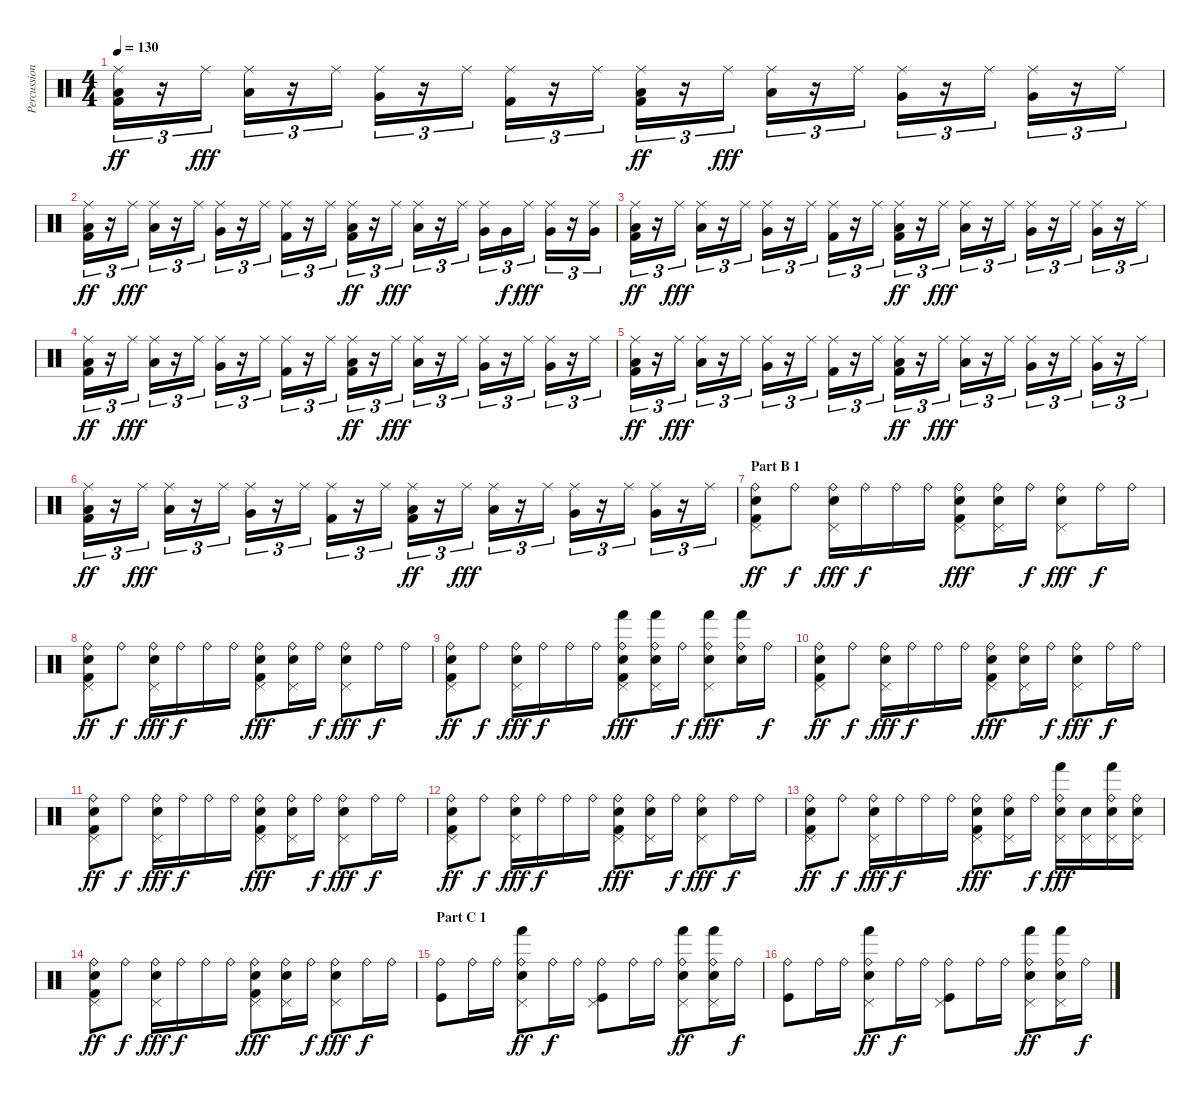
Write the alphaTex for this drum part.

\track ("Percussion" "Percussion") {instrument percussion}
\staff {score}
\articulation defaults
\ts (4 4)
\tempo 130
\clef neutral
\ks c
("Ride (middle)" "Low Tom (hit)" "Kick (hit) 2").16{tu (3 2) dy ff} r.16{tu (3 2)} "Ride (middle)".16{tu (3 2) dy fff} ("Ride (middle)" "Low Floor Tom (hit)").16{tu (3 2)} r.16{tu (3 2)} "Ride (middle)".16{tu (3 2)} ("Ride (middle)" "Very Low Tom (hit)").16{tu (3 2)} r.16{tu (3 2)} "Ride (middle)".16{tu (3 2)} ("Ride (middle)" "Kick (hit) 2").16{tu (3 2)} r.16{tu (3 2)} "Ride (middle)".16{tu (3 2)} ("Ride (middle)" "Low Tom (hit)" "Kick (hit) 2").16{tu (3 2) dy ff} r.16{tu (3 2)} "Ride (middle)".16{tu (3 2) dy fff} ("Ride (middle)" "Low Floor Tom (hit)").16{tu (3 2)} r.16{tu (3 2)} "Ride (middle)".16{tu (3 2)} ("Ride (middle)" "Very Low Tom (hit)").16{tu (3 2)} r.16{tu (3 2)} "Ride (middle)".16{tu (3 2)} ("Ride (middle)" "Very Low Tom (hit)").16{tu (3 2)} r.16{tu (3 2)} "Ride (middle)".16{tu (3 2)} |
("Ride (middle)" "Low Tom (hit)" "Kick (hit) 2").16{tu (3 2) dy ff} r.16{tu (3 2)} "Ride (middle)".16{tu (3 2) dy fff} ("Ride (middle)" "Low Floor Tom (hit)").16{tu (3 2)} r.16{tu (3 2)} "Ride (middle)".16{tu (3 2)} ("Ride (middle)" "Very Low Tom (hit)").16{tu (3 2)} r.16{tu (3 2)} "Ride (middle)".16{tu (3 2)} ("Ride (middle)" "Kick (hit) 2").16{tu (3 2)} r.16{tu (3 2)} "Ride (middle)".16{tu (3 2)} ("Ride (middle)" "Low Tom (hit)" "Kick (hit) 2").16{tu (3 2) dy ff} r.16{tu (3 2)} "Ride (middle)".16{tu (3 2) dy fff} ("Ride (middle)" "Low Floor Tom (hit)").16{tu (3 2)} r.16{tu (3 2)} "Ride (middle)".16{tu (3 2)} ("Ride (middle)" "Very Low Tom (hit)").16{tu (3 2)} "Very Low Tom (hit)".16{tu (3 2) dy f} "Ride (middle)".16{tu (3 2) dy fff} ("Ride (middle)" "Very Low Tom (hit)").16{tu (3 2)} r.16{tu (3 2)} ("Ride (middle)" "Very Low Tom (hit)").16{tu (3 2)} |
("Ride (middle)" "Low Tom (hit)" "Kick (hit) 2").16{tu (3 2) dy ff} r.16{tu (3 2)} "Ride (middle)".16{tu (3 2) dy fff} ("Ride (middle)" "Low Floor Tom (hit)").16{tu (3 2)} r.16{tu (3 2)} "Ride (middle)".16{tu (3 2)} ("Ride (middle)" "Very Low Tom (hit)").16{tu (3 2)} r.16{tu (3 2)} "Ride (middle)".16{tu (3 2)} ("Ride (middle)" "Kick (hit) 2").16{tu (3 2)} r.16{tu (3 2)} "Ride (middle)".16{tu (3 2)} ("Ride (middle)" "Low Tom (hit)" "Kick (hit) 2").16{tu (3 2) dy ff} r.16{tu (3 2)} "Ride (middle)".16{tu (3 2) dy fff} ("Ride (middle)" "Low Floor Tom (hit)").16{tu (3 2)} r.16{tu (3 2)} "Ride (middle)".16{tu (3 2)} ("Ride (middle)" "Very Low Tom (hit)").16{tu (3 2)} r.16{tu (3 2)} "Ride (middle)".16{tu (3 2)} ("Ride (middle)" "Very Low Tom (hit)").16{tu (3 2)} r.16{tu (3 2)} "Ride (middle)".16{tu (3 2)} |
("Ride (middle)" "Low Tom (hit)" "Kick (hit) 2").16{tu (3 2) dy ff} r.16{tu (3 2)} "Ride (middle)".16{tu (3 2) dy fff} ("Ride (middle)" "Low Floor Tom (hit)").16{tu (3 2)} r.16{tu (3 2)} "Ride (middle)".16{tu (3 2)} ("Ride (middle)" "Very Low Tom (hit)").16{tu (3 2)} r.16{tu (3 2)} "Ride (middle)".16{tu (3 2)} ("Ride (middle)" "Kick (hit) 2").16{tu (3 2)} r.16{tu (3 2)} "Ride (middle)".16{tu (3 2)} ("Ride (middle)" "Low Tom (hit)" "Kick (hit) 2").16{tu (3 2) dy ff} r.16{tu (3 2)} "Ride (middle)".16{tu (3 2) dy fff} ("Ride (middle)" "Low Floor Tom (hit)").16{tu (3 2)} r.16{tu (3 2)} "Ride (middle)".16{tu (3 2)} ("Ride (middle)" "Very Low Tom (hit)").16{tu (3 2)} r.16{tu (3 2)} "Ride (middle)".16{tu (3 2)} ("Ride (middle)" "Very Low Tom (hit)").16{tu (3 2)} r.16{tu (3 2)} "Ride (middle)".16{tu (3 2)} |
("Ride (middle)" "Low Tom (hit)" "Kick (hit) 2").16{tu (3 2) dy ff} r.16{tu (3 2)} "Ride (middle)".16{tu (3 2) dy fff} ("Ride (middle)" "Low Floor Tom (hit)").16{tu (3 2)} r.16{tu (3 2)} "Ride (middle)".16{tu (3 2)} ("Ride (middle)" "Very Low Tom (hit)").16{tu (3 2)} r.16{tu (3 2)} "Ride (middle)".16{tu (3 2)} ("Ride (middle)" "Kick (hit) 2").16{tu (3 2)} r.16{tu (3 2)} "Ride (middle)".16{tu (3 2)} ("Ride (middle)" "Low Tom (hit)" "Kick (hit) 2").16{tu (3 2) dy ff} r.16{tu (3 2)} "Ride (middle)".16{tu (3 2) dy fff} ("Ride (middle)" "Low Floor Tom (hit)").16{tu (3 2)} r.16{tu (3 2)} "Ride (middle)".16{tu (3 2)} ("Ride (middle)" "Very Low Tom (hit)").16{tu (3 2)} r.16{tu (3 2)} "Ride (middle)".16{tu (3 2)} ("Ride (middle)" "Very Low Tom (hit)").16{tu (3 2)} r.16{tu (3 2)} "Ride (middle)".16{tu (3 2)} |
("Ride (middle)" "Low Tom (hit)" "Kick (hit) 2").16{tu (3 2) dy ff} r.16{tu (3 2)} "Ride (middle)".16{tu (3 2) dy fff} ("Ride (middle)" "Low Floor Tom (hit)").16{tu (3 2)} r.16{tu (3 2)} "Ride (middle)".16{tu (3 2)} ("Ride (middle)" "Very Low Tom (hit)").16{tu (3 2)} r.16{tu (3 2)} "Ride (middle)".16{tu (3 2)} ("Ride (middle)" "Kick (hit) 2").16{tu (3 2)} r.16{tu (3 2)} "Ride (middle)".16{tu (3 2)} ("Ride (middle)" "Low Tom (hit)" "Kick (hit) 2").16{tu (3 2) dy ff} r.16{tu (3 2)} "Ride (middle)".16{tu (3 2) dy fff} ("Ride (middle)" "Low Floor Tom (hit)").16{tu (3 2)} r.16{tu (3 2)} "Ride (middle)".16{tu (3 2)} ("Ride (middle)" "Very Low Tom (hit)").16{tu (3 2)} r.16{tu (3 2)} "Ride (middle)".16{tu (3 2)} ("Ride (middle)" "Very Low Tom (hit)").16{tu (3 2)} r.16{tu (3 2)} "Ride (middle)".16{tu (3 2)} |
\section ("" "Part B 1")
("Ride (bell)" "Pedal Hi-Hat (hit)" "Electric Snare (hit)" "Kick (hit) 2").8{dy ff} "Ride (bell)".8{dy f} ("Ride (bell)" "Pedal Hi-Hat (hit)" "Electric Snare (hit)").16{dy fff} "Ride (bell)".16{dy f} "Ride (bell)".16 "Ride (bell)".16 ("Ride (bell)" "Pedal Hi-Hat (hit)" "Electric Snare (hit)" "Kick (hit) 2").8{dy fff} ("Ride (bell)" "Pedal Hi-Hat (hit)" "Electric Snare (hit)").16 "Ride (bell)".16{dy f} ("Ride (bell)" "Pedal Hi-Hat (hit)" "Electric Snare (hit)").8{dy fff} "Ride (bell)".16{dy f} "Ride (bell)".16 |
("Ride (bell)" "Pedal Hi-Hat (hit)" "Electric Snare (hit)" "Kick (hit) 2").8{dy ff} "Ride (bell)".8{dy f} ("Ride (bell)" "Pedal Hi-Hat (hit)" "Electric Snare (hit)").16{dy fff} "Ride (bell)".16{dy f} "Ride (bell)".16 "Ride (bell)".16 ("Ride (bell)" "Pedal Hi-Hat (hit)" "Electric Snare (hit)" "Kick (hit) 2").8{dy fff} ("Ride (bell)" "Pedal Hi-Hat (hit)" "Electric Snare (hit)").16 "Ride (bell)".16{dy f} ("Ride (bell)" "Pedal Hi-Hat (hit)" "Electric Snare (hit)").8{dy fff} "Ride (bell)".16{dy f} "Ride (bell)".16 |
("Ride (bell)" "Pedal Hi-Hat (hit)" "Electric Snare (hit)" "Kick (hit) 2").8{dy ff} "Ride (bell)".8{dy f} ("Ride (bell)" "Pedal Hi-Hat (hit)" "Electric Snare (hit)").16{dy fff} "Ride (bell)".16{dy f} "Ride (bell)".16 "Ride (bell)".16 ("Ride (bell)" "Pedal Hi-Hat (hit)" "Hand (hit)" "Electric Snare (hit)" "Kick (hit) 2").8{dy fff} ("Ride (bell)" "Pedal Hi-Hat (hit)" "Hand (hit)" "Electric Snare (hit)").16 "Ride (bell)".16{dy f} ("Ride (bell)" "Pedal Hi-Hat (hit)" "Hand (hit)" "Electric Snare (hit)").8{dy fff} ("Ride (bell)" "Hand (hit)" "Electric Snare (hit)").16 "Ride (bell)".16{dy f} |
("Ride (bell)" "Pedal Hi-Hat (hit)" "Electric Snare (hit)" "Kick (hit) 2").8{dy ff} "Ride (bell)".8{dy f} ("Ride (bell)" "Pedal Hi-Hat (hit)" "Electric Snare (hit)").16{dy fff} "Ride (bell)".16{dy f} "Ride (bell)".16 "Ride (bell)".16 ("Ride (bell)" "Pedal Hi-Hat (hit)" "Electric Snare (hit)" "Kick (hit) 2").8{dy fff} ("Ride (bell)" "Pedal Hi-Hat (hit)" "Electric Snare (hit)").16 "Ride (bell)".16{dy f} ("Ride (bell)" "Pedal Hi-Hat (hit)" "Electric Snare (hit)").8{dy fff} "Ride (bell)".16{dy f} "Ride (bell)".16 |
("Ride (bell)" "Pedal Hi-Hat (hit)" "Electric Snare (hit)" "Kick (hit) 2").8{dy ff} "Ride (bell)".8{dy f} ("Ride (bell)" "Pedal Hi-Hat (hit)" "Electric Snare (hit)").16{dy fff} "Ride (bell)".16{dy f} "Ride (bell)".16 "Ride (bell)".16 ("Ride (bell)" "Pedal Hi-Hat (hit)" "Electric Snare (hit)" "Kick (hit) 2").8{dy fff} ("Ride (bell)" "Pedal Hi-Hat (hit)" "Electric Snare (hit)").16 "Ride (bell)".16{dy f} ("Ride (bell)" "Pedal Hi-Hat (hit)" "Electric Snare (hit)").8{dy fff} "Ride (bell)".16{dy f} "Ride (bell)".16 |
("Ride (bell)" "Pedal Hi-Hat (hit)" "Electric Snare (hit)" "Kick (hit) 2").8{dy ff} "Ride (bell)".8{dy f} ("Ride (bell)" "Pedal Hi-Hat (hit)" "Electric Snare (hit)").16{dy fff} "Ride (bell)".16{dy f} "Ride (bell)".16 "Ride (bell)".16 ("Ride (bell)" "Pedal Hi-Hat (hit)" "Electric Snare (hit)" "Kick (hit) 2").8{dy fff} ("Ride (bell)" "Pedal Hi-Hat (hit)" "Electric Snare (hit)").16 "Ride (bell)".16{dy f} ("Ride (bell)" "Pedal Hi-Hat (hit)" "Electric Snare (hit)").8{dy fff} "Ride (bell)".16{dy f} "Ride (bell)".16 |
("Ride (bell)" "Pedal Hi-Hat (hit)" "Electric Snare (hit)" "Kick (hit) 2").8{dy ff} "Ride (bell)".8{dy f} ("Ride (bell)" "Pedal Hi-Hat (hit)" "Electric Snare (hit)").16{dy fff} "Ride (bell)".16{dy f} "Ride (bell)".16 "Ride (bell)".16 ("Ride (bell)" "Pedal Hi-Hat (hit)" "Electric Snare (hit)" "Kick (hit) 2").8{dy fff} ("Ride (bell)" "Pedal Hi-Hat (hit)" "Electric Snare (hit)").16 "Ride (bell)".16{dy f} ("Ride (bell)" "Pedal Hi-Hat (hit)" "Hand (hit)" "Electric Snare (hit)").16{dy fff} ("Pedal Hi-Hat (hit)" "Electric Snare (hit)").16 ("Ride (bell)" "Pedal Hi-Hat (hit)" "Hand (hit)" "Electric Snare (hit)").16 ("Ride (bell)" "Pedal Hi-Hat (hit)" "Electric Snare (hit)").16 |
("Ride (bell)" "Pedal Hi-Hat (hit)" "Electric Snare (hit)" "Kick (hit) 2").8{dy ff} "Ride (bell)".8{dy f} ("Ride (bell)" "Pedal Hi-Hat (hit)" "Electric Snare (hit)").16{dy fff} "Ride (bell)".16{dy f} "Ride (bell)".16 "Ride (bell)".16 ("Ride (bell)" "Pedal Hi-Hat (hit)" "Electric Snare (hit)" "Kick (hit) 2").8{dy fff} ("Ride (bell)" "Pedal Hi-Hat (hit)" "Electric Snare (hit)").16 "Ride (bell)".16{dy f} ("Ride (bell)" "Pedal Hi-Hat (hit)" "Electric Snare (hit)").8{dy fff} "Ride (bell)".16{dy f} "Ride (bell)".16 |
\section ("" "Part C 1")
("Ride (bell)" "Kick (hit)").8 "Ride (bell)".16 "Ride (bell)".16 ("Ride (bell)" "Pedal Hi-Hat (hit)" "Hand (hit)" "Electric Snare (hit)").8{dy ff} "Ride (bell)".16{dy f} "Ride (bell)".16 ("Ride (bell)" "Pedal Hi-Hat (hit)" "Kick (hit)").8 "Ride (bell)".16 "Ride (bell)".16 ("Ride (bell)" "Pedal Hi-Hat (hit)" "Hand (hit)" "Electric Snare (hit)").8{dy ff} ("Ride (bell)" "Pedal Hi-Hat (hit)" "Hand (hit)" "Electric Snare (hit)").16 "Ride (bell)".16{dy f} |
("Ride (bell)" "Kick (hit)").8 "Ride (bell)".16 "Ride (bell)".16 ("Ride (bell)" "Pedal Hi-Hat (hit)" "Hand (hit)" "Electric Snare (hit)").8{dy ff} "Ride (bell)".16{dy f} "Ride (bell)".16 ("Ride (bell)" "Pedal Hi-Hat (hit)" "Kick (hit)").8 "Ride (bell)".16 "Ride (bell)".16 ("Ride (bell)" "Pedal Hi-Hat (hit)" "Hand (hit)" "Electric Snare (hit)").8{dy ff} ("Ride (bell)" "Pedal Hi-Hat (hit)" "Hand (hit)" "Electric Snare (hit)").16 "Ride (bell)".16{dy f}
